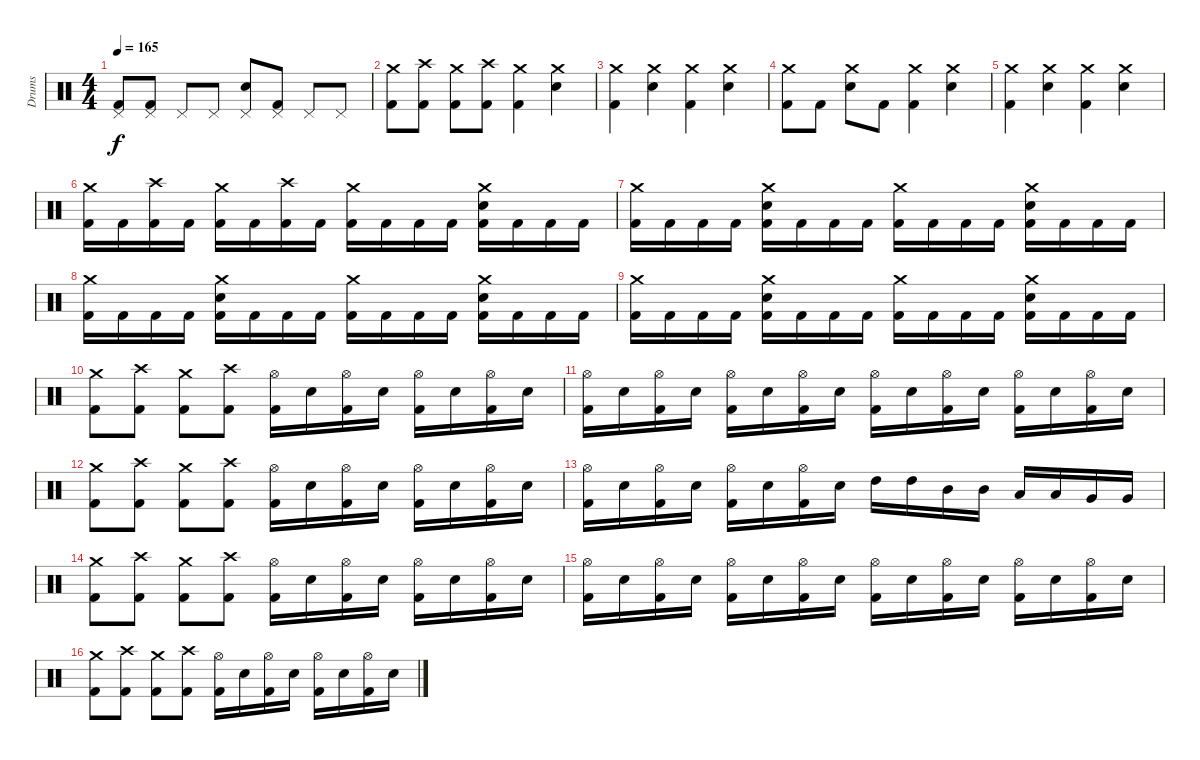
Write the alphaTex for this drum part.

\track ("Drums" "Drums") {instrument percussion}
\staff {score}
\articulation defaults
\ts (4 4)
\tempo 165
\clef neutral
\ks c
("Pedal Hi-Hat (hit)" "Kick (hit) 2").8{dy f} ("Pedal Hi-Hat (hit)" "Kick (hit) 2").8 "Pedal Hi-Hat (hit)".8 "Pedal Hi-Hat (hit)".8 ("Pedal Hi-Hat (hit)" "Electric Snare (hit)").8 ("Pedal Hi-Hat (hit)" "Kick (hit) 2").8 "Pedal Hi-Hat (hit)".8 "Pedal Hi-Hat (hit)".8 |
("Crash medium (hit)" "Kick (hit) 2").8 ("Crash high (hit)" "Kick (hit) 2").8 ("Crash medium (hit)" "Kick (hit) 2").8 ("Crash high (hit)" "Kick (hit) 2").8 ("Crash medium (hit)" "Kick (hit) 2").4 ("Crash medium (hit)" "Electric Snare (hit)").4 |
("Crash medium (hit)" "Kick (hit) 2").4 ("Crash medium (hit)" "Electric Snare (hit)").4 ("Crash medium (hit)" "Kick (hit) 2").4 ("Crash medium (hit)" "Electric Snare (hit)").4 |
("Crash medium (hit)" "Kick (hit) 2").8 "Kick (hit) 2".8 ("Crash medium (hit)" "Electric Snare (hit)").8 "Kick (hit) 2".8 ("Crash medium (hit)" "Kick (hit) 2").4 ("Crash medium (hit)" "Electric Snare (hit)").4 |
("Crash medium (hit)" "Kick (hit) 2").4 ("Crash medium (hit)" "Electric Snare (hit)").4 ("Crash medium (hit)" "Kick (hit) 2").4 ("Crash medium (hit)" "Electric Snare (hit)").4 |
("Crash medium (hit)" "Kick (hit) 2").16 "Kick (hit) 2".16 ("Crash high (hit)" "Kick (hit) 2").16 "Kick (hit) 2".16 ("Crash medium (hit)" "Kick (hit) 2").16 "Kick (hit) 2".16 ("Crash high (hit)" "Kick (hit) 2").16 "Kick (hit) 2".16 ("Crash medium (hit)" "Kick (hit) 2").16 "Kick (hit) 2".16 "Kick (hit) 2".16 "Kick (hit) 2".16 ("Crash medium (hit)" "Electric Snare (hit)" "Kick (hit) 2").16 "Kick (hit) 2".16 "Kick (hit) 2".16 "Kick (hit) 2".16 |
("Crash medium (hit)" "Kick (hit) 2").16 "Kick (hit) 2".16 "Kick (hit) 2".16 "Kick (hit) 2".16 ("Crash medium (hit)" "Electric Snare (hit)" "Kick (hit) 2").16 "Kick (hit) 2".16 "Kick (hit) 2".16 "Kick (hit) 2".16 ("Crash medium (hit)" "Kick (hit) 2").16 "Kick (hit) 2".16 "Kick (hit) 2".16 "Kick (hit) 2".16 ("Crash medium (hit)" "Electric Snare (hit)" "Kick (hit) 2").16 "Kick (hit) 2".16 "Kick (hit) 2".16 "Kick (hit) 2".16 |
("Crash medium (hit)" "Kick (hit) 2").16 "Kick (hit) 2".16 "Kick (hit) 2".16 "Kick (hit) 2".16 ("Crash medium (hit)" "Electric Snare (hit)" "Kick (hit) 2").16 "Kick (hit) 2".16 "Kick (hit) 2".16 "Kick (hit) 2".16 ("Crash medium (hit)" "Kick (hit) 2").16 "Kick (hit) 2".16 "Kick (hit) 2".16 "Kick (hit) 2".16 ("Crash medium (hit)" "Electric Snare (hit)" "Kick (hit) 2").16 "Kick (hit) 2".16 "Kick (hit) 2".16 "Kick (hit) 2".16 |
("Crash medium (hit)" "Kick (hit) 2").16 "Kick (hit) 2".16 "Kick (hit) 2".16 "Kick (hit) 2".16 ("Crash medium (hit)" "Electric Snare (hit)" "Kick (hit) 2").16 "Kick (hit) 2".16 "Kick (hit) 2".16 "Kick (hit) 2".16 ("Crash medium (hit)" "Kick (hit) 2").16 "Kick (hit) 2".16 "Kick (hit) 2".16 "Kick (hit) 2".16 ("Crash medium (hit)" "Electric Snare (hit)" "Kick (hit) 2").16 "Kick (hit) 2".16 "Kick (hit) 2".16 "Kick (hit) 2".16 |
("Crash medium (hit)" "Kick (hit) 2").8 ("Crash high (hit)" "Kick (hit) 2").8 ("Crash medium (hit)" "Kick (hit) 2").8 ("Crash high (hit)" "Kick (hit) 2").8 ("Hi-Hat (open)" "Kick (hit) 2").16 "Electric Snare (hit)".16 ("Hi-Hat (open)" "Kick (hit) 2").16 "Electric Snare (hit)".16 ("Hi-Hat (open)" "Kick (hit) 2").16 "Electric Snare (hit)".16 ("Hi-Hat (open)" "Kick (hit) 2").16 "Electric Snare (hit)".16 |
("Hi-Hat (open)" "Kick (hit) 2").16 "Electric Snare (hit)".16 ("Hi-Hat (open)" "Kick (hit) 2").16 "Electric Snare (hit)".16 ("Hi-Hat (open)" "Kick (hit) 2").16 "Electric Snare (hit)".16 ("Hi-Hat (open)" "Kick (hit) 2").16 "Electric Snare (hit)".16 ("Hi-Hat (open)" "Kick (hit) 2").16 "Electric Snare (hit)".16 ("Hi-Hat (open)" "Kick (hit) 2").16 "Electric Snare (hit)".16 ("Hi-Hat (open)" "Kick (hit) 2").16 "Electric Snare (hit)".16 ("Hi-Hat (open)" "Kick (hit) 2").16 "Electric Snare (hit)".16 |
("Crash medium (hit)" "Kick (hit) 2").8 ("Crash high (hit)" "Kick (hit) 2").8 ("Crash medium (hit)" "Kick (hit) 2").8 ("Crash high (hit)" "Kick (hit) 2").8 ("Hi-Hat (open)" "Kick (hit) 2").16 "Electric Snare (hit)".16 ("Hi-Hat (open)" "Kick (hit) 2").16 "Electric Snare (hit)".16 ("Hi-Hat (open)" "Kick (hit) 2").16 "Electric Snare (hit)".16 ("Hi-Hat (open)" "Kick (hit) 2").16 "Electric Snare (hit)".16 |
("Hi-Hat (open)" "Kick (hit) 2").16 "Electric Snare (hit)".16 ("Hi-Hat (open)" "Kick (hit) 2").16 "Electric Snare (hit)".16 ("Hi-Hat (open)" "Kick (hit) 2").16 "Electric Snare (hit)".16 ("Hi-Hat (open)" "Kick (hit) 2").16 "Electric Snare (hit)".16 "High Tom (hit)".16 "High Tom (hit)".16 "Mid Tom (hit)".16 "Mid Tom (hit)".16 "Low Tom (hit)".16 "Low Tom (hit)".16 "Very Low Tom (hit)".16 "Very Low Tom (hit)".16 |
("Crash medium (hit)" "Kick (hit) 2").8 ("Crash high (hit)" "Kick (hit) 2").8 ("Crash medium (hit)" "Kick (hit) 2").8 ("Crash high (hit)" "Kick (hit) 2").8 ("Hi-Hat (open)" "Kick (hit) 2").16 "Electric Snare (hit)".16 ("Hi-Hat (open)" "Kick (hit) 2").16 "Electric Snare (hit)".16 ("Hi-Hat (open)" "Kick (hit) 2").16 "Electric Snare (hit)".16 ("Hi-Hat (open)" "Kick (hit) 2").16 "Electric Snare (hit)".16 |
("Hi-Hat (open)" "Kick (hit) 2").16 "Electric Snare (hit)".16 ("Hi-Hat (open)" "Kick (hit) 2").16 "Electric Snare (hit)".16 ("Hi-Hat (open)" "Kick (hit) 2").16 "Electric Snare (hit)".16 ("Hi-Hat (open)" "Kick (hit) 2").16 "Electric Snare (hit)".16 ("Hi-Hat (open)" "Kick (hit) 2").16 "Electric Snare (hit)".16 ("Hi-Hat (open)" "Kick (hit) 2").16 "Electric Snare (hit)".16 ("Hi-Hat (open)" "Kick (hit) 2").16 "Electric Snare (hit)".16 ("Hi-Hat (open)" "Kick (hit) 2").16 "Electric Snare (hit)".16 |
("Crash medium (hit)" "Kick (hit) 2").8 ("Crash high (hit)" "Kick (hit) 2").8 ("Crash medium (hit)" "Kick (hit) 2").8 ("Crash high (hit)" "Kick (hit) 2").8 ("Hi-Hat (open)" "Kick (hit) 2").16 "Electric Snare (hit)".16 ("Hi-Hat (open)" "Kick (hit) 2").16 "Electric Snare (hit)".16 ("Hi-Hat (open)" "Kick (hit) 2").16 "Electric Snare (hit)".16 ("Hi-Hat (open)" "Kick (hit) 2").16 "Electric Snare (hit)".16
